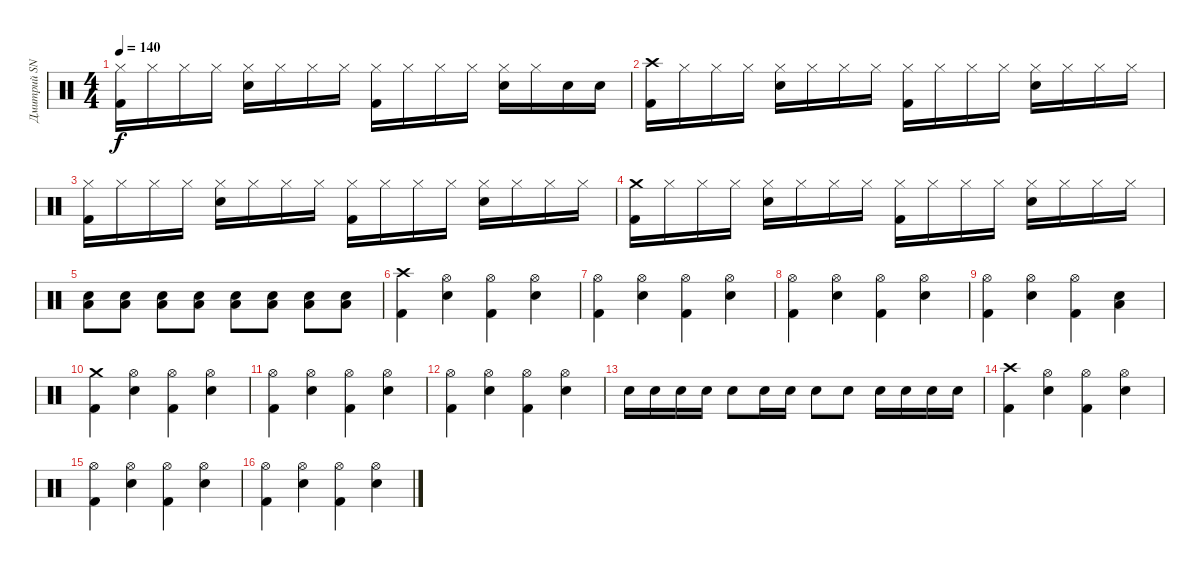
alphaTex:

\track ("Дмитрий SNAKE Хакимов" "Дмитрий SN") {instrument percussion}
\staff {score}
\articulation defaults
\ts (4 4)
\tempo 140
\clef neutral
\ks c
("Hi-Hat (closed)" "Kick (hit) 2").16{dy f} "Hi-Hat (closed)".16 "Hi-Hat (closed)".16 "Hi-Hat (closed)".16 ("Hi-Hat (closed)" "Snare (hit) 2").16 "Hi-Hat (closed)".16 "Hi-Hat (closed)".16 "Hi-Hat (closed)".16 ("Hi-Hat (closed)" "Kick (hit) 2").16 "Hi-Hat (closed)".16 "Hi-Hat (closed)".16 "Hi-Hat (closed)".16 ("Hi-Hat (closed)" "Snare (hit) 2").16 "Hi-Hat (closed)".16 "Snare (hit) 2".16 "Snare (hit) 2".16 |
("Crash high (hit)" "Kick (hit) 2").16 "Hi-Hat (closed)".16 "Hi-Hat (closed)".16 "Hi-Hat (closed)".16 ("Hi-Hat (closed)" "Snare (hit) 2").16 "Hi-Hat (closed)".16 "Hi-Hat (closed)".16 "Hi-Hat (closed)".16 ("Hi-Hat (closed)" "Kick (hit) 2").16 "Hi-Hat (closed)".16 "Hi-Hat (closed)".16 "Hi-Hat (closed)".16 ("Hi-Hat (closed)" "Snare (hit) 2").16 "Hi-Hat (closed)".16 "Hi-Hat (closed)".16 "Hi-Hat (closed)".16 |
("Hi-Hat (closed)" "Kick (hit) 2").16 "Hi-Hat (closed)".16 "Hi-Hat (closed)".16 "Hi-Hat (closed)".16 ("Hi-Hat (closed)" "Snare (hit) 2").16 "Hi-Hat (closed)".16 "Hi-Hat (closed)".16 "Hi-Hat (closed)".16 ("Hi-Hat (closed)" "Kick (hit) 2").16 "Hi-Hat (closed)".16 "Hi-Hat (closed)".16 "Hi-Hat (closed)".16 ("Hi-Hat (closed)" "Snare (hit) 2").16 "Hi-Hat (closed)".16 "Hi-Hat (closed)".16 "Hi-Hat (closed)".16 |
("Crash medium (hit)" "Kick (hit) 2").16 "Hi-Hat (closed)".16 "Hi-Hat (closed)".16 "Hi-Hat (closed)".16 ("Hi-Hat (closed)" "Snare (hit) 2").16 "Hi-Hat (closed)".16 "Hi-Hat (closed)".16 "Hi-Hat (closed)".16 ("Hi-Hat (closed)" "Kick (hit) 2").16 "Hi-Hat (closed)".16 "Hi-Hat (closed)".16 "Hi-Hat (closed)".16 ("Hi-Hat (closed)" "Snare (hit) 2").16 "Hi-Hat (closed)".16 "Hi-Hat (closed)".16 "Hi-Hat (closed)".16 |
("Snare (hit) 2" "Low Tom (hit)").8 ("Snare (hit) 2" "Low Tom (hit)").8 ("Snare (hit) 2" "Low Tom (hit)").8 ("Snare (hit) 2" "Low Tom (hit)").8 ("Snare (hit) 2" "Low Tom (hit)").8 ("Snare (hit) 2" "Low Tom (hit)").8 ("Snare (hit) 2" "Low Tom (hit)").8 ("Snare (hit) 2" "Low Tom (hit)").8 |
("Crash high (hit)" "Kick (hit) 2").4 ("Hi-Hat (open)" "Snare (hit) 2").4 ("Hi-Hat (open)" "Kick (hit) 2").4 ("Hi-Hat (open)" "Snare (hit) 2").4 |
("Hi-Hat (open)" "Kick (hit) 2").4 ("Hi-Hat (open)" "Snare (hit) 2").4 ("Hi-Hat (open)" "Kick (hit) 2").4 ("Hi-Hat (open)" "Snare (hit) 2").4 |
("Hi-Hat (open)" "Kick (hit) 2").4 ("Hi-Hat (open)" "Snare (hit) 2").4 ("Hi-Hat (open)" "Kick (hit) 2").4 ("Hi-Hat (open)" "Snare (hit) 2").4 |
("Hi-Hat (open)" "Kick (hit) 2").4 ("Hi-Hat (open)" "Snare (hit) 2").4 ("Hi-Hat (open)" "Kick (hit) 2").4 ("Snare (hit) 2" "Low Tom (hit)").4 |
("Crash medium (hit)" "Kick (hit) 2").4 ("Hi-Hat (open)" "Snare (hit) 2").4 ("Hi-Hat (open)" "Kick (hit) 2").4 ("Hi-Hat (open)" "Snare (hit) 2").4 |
("Hi-Hat (open)" "Kick (hit) 2").4 ("Hi-Hat (open)" "Snare (hit) 2").4 ("Hi-Hat (open)" "Kick (hit) 2").4 ("Hi-Hat (open)" "Snare (hit) 2").4 |
("Hi-Hat (open)" "Kick (hit) 2").4 ("Hi-Hat (open)" "Snare (hit) 2").4 ("Hi-Hat (open)" "Kick (hit) 2").4 ("Hi-Hat (open)" "Snare (hit) 2").4 |
"Snare (hit) 2".16 "Snare (hit) 2".16 "Snare (hit) 2".16 "Snare (hit) 2".16 "Snare (hit) 2".8 "Snare (hit) 2".16 "Snare (hit) 2".16 "Snare (hit) 2".8 "Snare (hit) 2".8 "Snare (hit) 2".16 "Snare (hit) 2".16 "Snare (hit) 2".16 "Snare (hit) 2".16 |
("Crash high (hit)" "Kick (hit) 2").4 ("Hi-Hat (open)" "Snare (hit) 2").4 ("Hi-Hat (open)" "Kick (hit) 2").4 ("Hi-Hat (open)" "Snare (hit) 2").4 |
("Hi-Hat (open)" "Kick (hit) 2").4 ("Hi-Hat (open)" "Snare (hit) 2").4 ("Hi-Hat (open)" "Kick (hit) 2").4 ("Hi-Hat (open)" "Snare (hit) 2").4 |
("Hi-Hat (open)" "Kick (hit) 2").4 ("Hi-Hat (open)" "Snare (hit) 2").4 ("Hi-Hat (open)" "Kick (hit) 2").4 ("Hi-Hat (open)" "Snare (hit) 2").4
